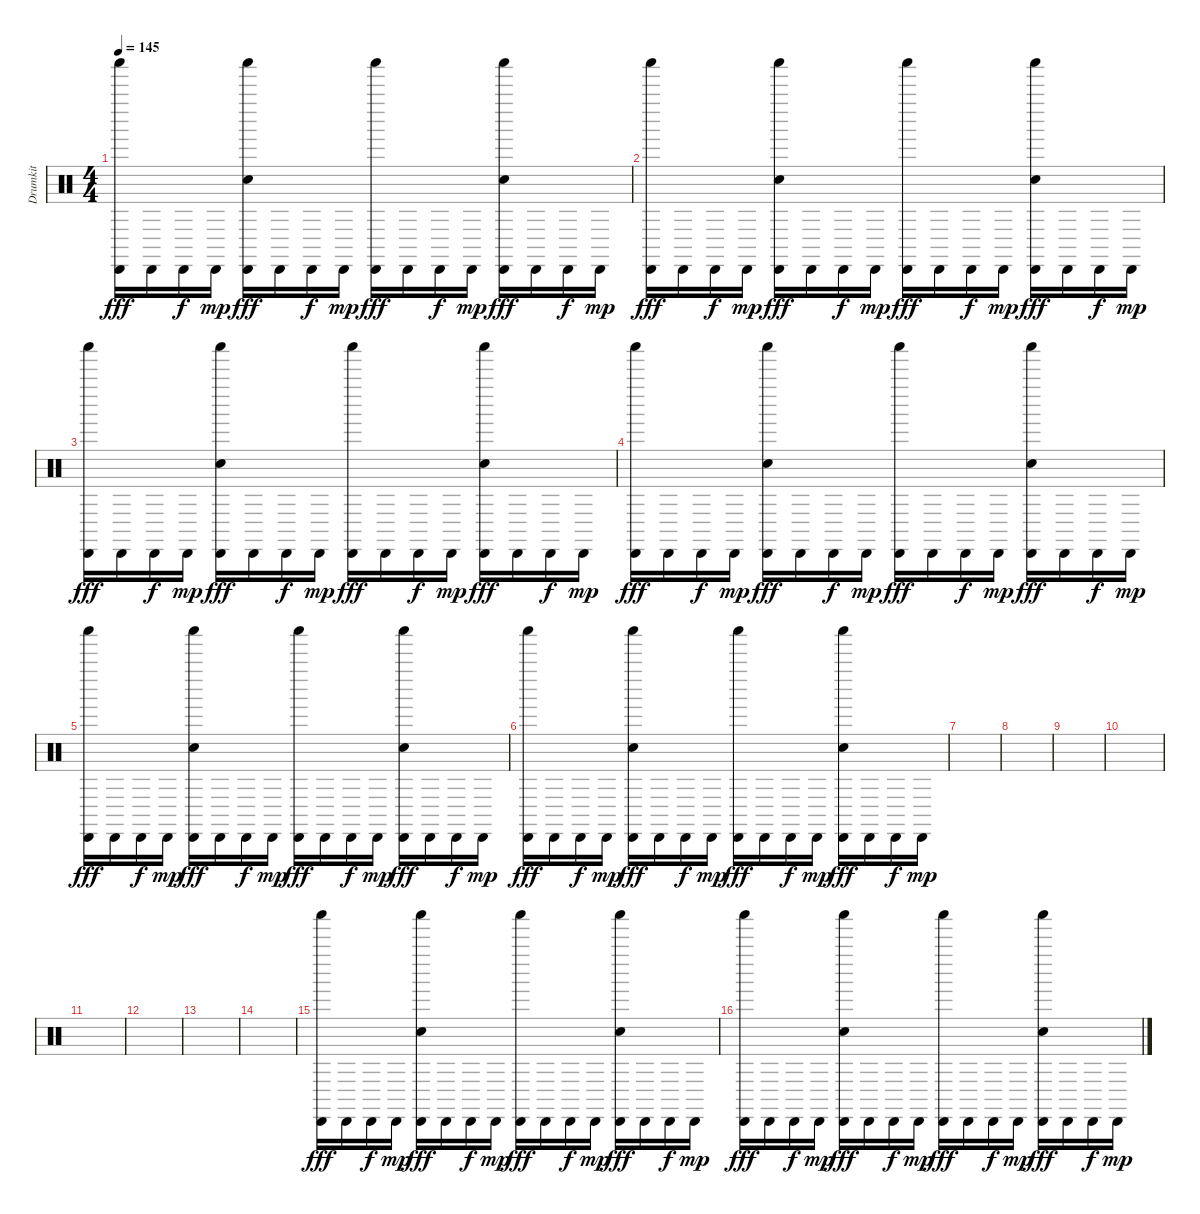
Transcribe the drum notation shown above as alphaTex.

\track ("Drumkit" "Drumkit") {instrument percussion}
\staff {score}
\articulation defaults
\ts (4 4)
\tempo 145
\clef neutral
\ks c
("Shaker (hit)" "Cabasa (hit)").16{dy fff} "Cabasa (hit)".16 "Cabasa (hit)".16{dy f} "Cabasa (hit)".16{dy mp} ("Shaker (hit)" "Snare (hit) 2" "Cabasa (hit)").16{dy fff} "Cabasa (hit)".16 "Cabasa (hit)".16{dy f} "Cabasa (hit)".16{dy mp} ("Shaker (hit)" "Cabasa (hit)").16{dy fff} "Cabasa (hit)".16 "Cabasa (hit)".16{dy f} "Cabasa (hit)".16{dy mp} ("Shaker (hit)" "Snare (hit) 2" "Cabasa (hit)").16{dy fff} "Cabasa (hit)".16 "Cabasa (hit)".16{dy f} "Cabasa (hit)".16{dy mp} |
("Shaker (hit)" "Cabasa (hit)").16{dy fff} "Cabasa (hit)".16 "Cabasa (hit)".16{dy f} "Cabasa (hit)".16{dy mp} ("Shaker (hit)" "Snare (hit) 2" "Cabasa (hit)").16{dy fff} "Cabasa (hit)".16 "Cabasa (hit)".16{dy f} "Cabasa (hit)".16{dy mp} ("Shaker (hit)" "Cabasa (hit)").16{dy fff} "Cabasa (hit)".16 "Cabasa (hit)".16{dy f} "Cabasa (hit)".16{dy mp} ("Shaker (hit)" "Snare (hit) 2" "Cabasa (hit)").16{dy fff} "Cabasa (hit)".16 "Cabasa (hit)".16{dy f} "Cabasa (hit)".16{dy mp} |
("Shaker (hit)" "Cabasa (hit)").16{dy fff} "Cabasa (hit)".16 "Cabasa (hit)".16{dy f} "Cabasa (hit)".16{dy mp} ("Shaker (hit)" "Snare (hit) 2" "Cabasa (hit)").16{dy fff} "Cabasa (hit)".16 "Cabasa (hit)".16{dy f} "Cabasa (hit)".16{dy mp} ("Shaker (hit)" "Cabasa (hit)").16{dy fff} "Cabasa (hit)".16 "Cabasa (hit)".16{dy f} "Cabasa (hit)".16{dy mp} ("Shaker (hit)" "Snare (hit) 2" "Cabasa (hit)").16{dy fff} "Cabasa (hit)".16 "Cabasa (hit)".16{dy f} "Cabasa (hit)".16{dy mp} |
("Shaker (hit)" "Cabasa (hit)").16{dy fff} "Cabasa (hit)".16 "Cabasa (hit)".16{dy f} "Cabasa (hit)".16{dy mp} ("Shaker (hit)" "Snare (hit) 2" "Cabasa (hit)").16{dy fff} "Cabasa (hit)".16 "Cabasa (hit)".16{dy f} "Cabasa (hit)".16{dy mp} ("Shaker (hit)" "Cabasa (hit)").16{dy fff} "Cabasa (hit)".16 "Cabasa (hit)".16{dy f} "Cabasa (hit)".16{dy mp} ("Shaker (hit)" "Snare (hit) 2" "Cabasa (hit)").16{dy fff} "Cabasa (hit)".16 "Cabasa (hit)".16{dy f} "Cabasa (hit)".16{dy mp} |
("Shaker (hit)" "Cabasa (hit)").16{dy fff} "Cabasa (hit)".16 "Cabasa (hit)".16{dy f} "Cabasa (hit)".16{dy mp} ("Shaker (hit)" "Snare (hit) 2" "Cabasa (hit)").16{dy fff} "Cabasa (hit)".16 "Cabasa (hit)".16{dy f} "Cabasa (hit)".16{dy mp} ("Shaker (hit)" "Cabasa (hit)").16{dy fff} "Cabasa (hit)".16 "Cabasa (hit)".16{dy f} "Cabasa (hit)".16{dy mp} ("Shaker (hit)" "Snare (hit) 2" "Cabasa (hit)").16{dy fff} "Cabasa (hit)".16 "Cabasa (hit)".16{dy f} "Cabasa (hit)".16{dy mp} |
("Shaker (hit)" "Cabasa (hit)").16{dy fff} "Cabasa (hit)".16 "Cabasa (hit)".16{dy f} "Cabasa (hit)".16{dy mp} ("Shaker (hit)" "Snare (hit) 2" "Cabasa (hit)").16{dy fff} "Cabasa (hit)".16 "Cabasa (hit)".16{dy f} "Cabasa (hit)".16{dy mp} ("Shaker (hit)" "Cabasa (hit)").16{dy fff} "Cabasa (hit)".16 "Cabasa (hit)".16{dy f} "Cabasa (hit)".16{dy mp} ("Shaker (hit)" "Snare (hit) 2" "Cabasa (hit)").16{dy fff} "Cabasa (hit)".16 "Cabasa (hit)".16{dy f} "Cabasa (hit)".16{dy mp} |
|
|
|
|
|
|
|
|
("Shaker (hit)" "Cabasa (hit)").16{dy fff} "Cabasa (hit)".16 "Cabasa (hit)".16{dy f} "Cabasa (hit)".16{dy mp} ("Shaker (hit)" "Snare (hit) 2" "Cabasa (hit)").16{dy fff} "Cabasa (hit)".16 "Cabasa (hit)".16{dy f} "Cabasa (hit)".16{dy mp} ("Shaker (hit)" "Cabasa (hit)").16{dy fff} "Cabasa (hit)".16 "Cabasa (hit)".16{dy f} "Cabasa (hit)".16{dy mp} ("Shaker (hit)" "Snare (hit) 2" "Cabasa (hit)").16{dy fff} "Cabasa (hit)".16 "Cabasa (hit)".16{dy f} "Cabasa (hit)".16{dy mp} |
("Shaker (hit)" "Cabasa (hit)").16{dy fff} "Cabasa (hit)".16 "Cabasa (hit)".16{dy f} "Cabasa (hit)".16{dy mp} ("Shaker (hit)" "Snare (hit) 2" "Cabasa (hit)").16{dy fff} "Cabasa (hit)".16 "Cabasa (hit)".16{dy f} "Cabasa (hit)".16{dy mp} ("Shaker (hit)" "Cabasa (hit)").16{dy fff} "Cabasa (hit)".16 "Cabasa (hit)".16{dy f} "Cabasa (hit)".16{dy mp} ("Shaker (hit)" "Snare (hit) 2" "Cabasa (hit)").16{dy fff} "Cabasa (hit)".16 "Cabasa (hit)".16{dy f} "Cabasa (hit)".16{dy mp}
